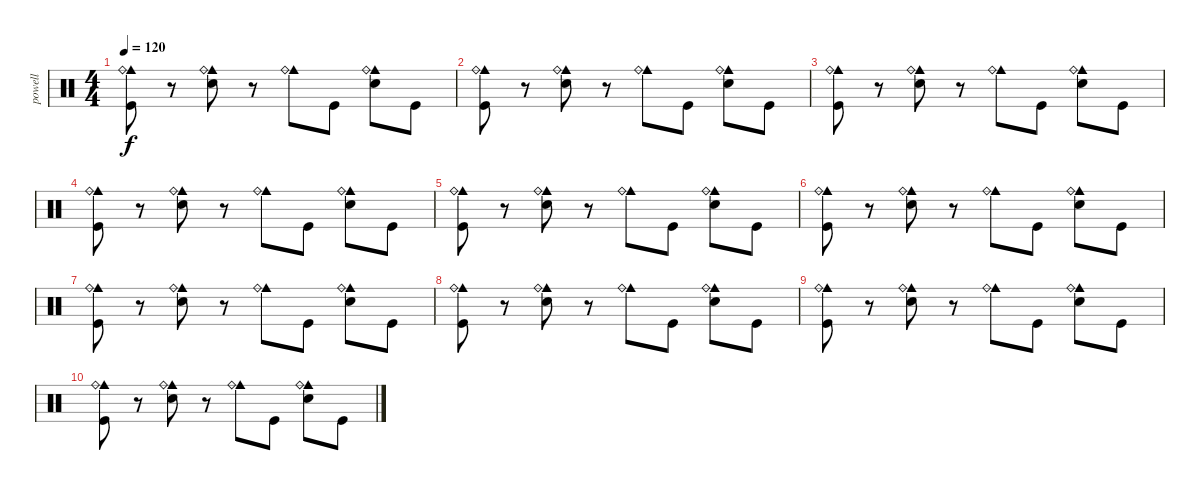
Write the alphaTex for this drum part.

\track ("powell" "powell") {instrument percussion}
\staff {score}
\articulation defaults
\ts (4 4)
\tempo 120
\clef neutral
\ks c
("Cowbell medium (hit)" "Ride (bell)" "Kick (hit)").8{dy f} r.8 ("Cowbell medium (hit)" "Ride (bell)" "Snare (hit) 2").8{volume 11} r.8 ("Cowbell medium (hit)" "Ride (bell)").8 "Kick (hit)".8 ("Cowbell medium (hit)" "Ride (bell)" "Snare (hit) 2").8 "Kick (hit)".8 |
("Cowbell medium (hit)" "Ride (bell)" "Kick (hit)").8 r.8 ("Cowbell medium (hit)" "Ride (bell)" "Snare (hit) 2").8{volume 11} r.8 ("Cowbell medium (hit)" "Ride (bell)").8 "Kick (hit)".8 ("Cowbell medium (hit)" "Ride (bell)" "Snare (hit) 2").8 "Kick (hit)".8 |
("Cowbell medium (hit)" "Ride (bell)" "Kick (hit)").8 r.8 ("Cowbell medium (hit)" "Ride (bell)" "Snare (hit) 2").8{volume 11} r.8 ("Cowbell medium (hit)" "Ride (bell)").8 "Kick (hit)".8 ("Cowbell medium (hit)" "Ride (bell)" "Snare (hit) 2").8 "Kick (hit)".8 |
("Cowbell medium (hit)" "Ride (bell)" "Kick (hit)").8 r.8 ("Cowbell medium (hit)" "Ride (bell)" "Snare (hit) 2").8{volume 11} r.8 ("Cowbell medium (hit)" "Ride (bell)").8 "Kick (hit)".8 ("Cowbell medium (hit)" "Ride (bell)" "Snare (hit) 2").8 "Kick (hit)".8 |
("Cowbell medium (hit)" "Ride (bell)" "Kick (hit)").8 r.8 ("Cowbell medium (hit)" "Ride (bell)" "Snare (hit) 2").8{volume 11} r.8 ("Cowbell medium (hit)" "Ride (bell)").8 "Kick (hit)".8 ("Cowbell medium (hit)" "Ride (bell)" "Snare (hit) 2").8 "Kick (hit)".8 |
("Cowbell medium (hit)" "Ride (bell)" "Kick (hit)").8 r.8 ("Cowbell medium (hit)" "Ride (bell)" "Snare (hit) 2").8{volume 11} r.8 ("Cowbell medium (hit)" "Ride (bell)").8 "Kick (hit)".8 ("Cowbell medium (hit)" "Ride (bell)" "Snare (hit) 2").8 "Kick (hit)".8 |
("Cowbell medium (hit)" "Ride (bell)" "Kick (hit)").8 r.8 ("Cowbell medium (hit)" "Ride (bell)" "Snare (hit) 2").8{volume 11} r.8 ("Cowbell medium (hit)" "Ride (bell)").8 "Kick (hit)".8 ("Cowbell medium (hit)" "Ride (bell)" "Snare (hit) 2").8 "Kick (hit)".8 |
("Cowbell medium (hit)" "Ride (bell)" "Kick (hit)").8 r.8 ("Cowbell medium (hit)" "Ride (bell)" "Snare (hit) 2").8{volume 11} r.8 ("Cowbell medium (hit)" "Ride (bell)").8 "Kick (hit)".8 ("Cowbell medium (hit)" "Ride (bell)" "Snare (hit) 2").8 "Kick (hit)".8 |
("Cowbell medium (hit)" "Ride (bell)" "Kick (hit)").8 r.8 ("Cowbell medium (hit)" "Ride (bell)" "Snare (hit) 2").8{volume 11} r.8 ("Cowbell medium (hit)" "Ride (bell)").8 "Kick (hit)".8 ("Cowbell medium (hit)" "Ride (bell)" "Snare (hit) 2").8 "Kick (hit)".8 |
("Cowbell medium (hit)" "Ride (bell)" "Kick (hit)").8 r.8 ("Cowbell medium (hit)" "Ride (bell)" "Snare (hit) 2").8{volume 11} r.8 ("Cowbell medium (hit)" "Ride (bell)").8 "Kick (hit)".8 ("Cowbell medium (hit)" "Ride (bell)" "Snare (hit) 2").8 "Kick (hit)".8
